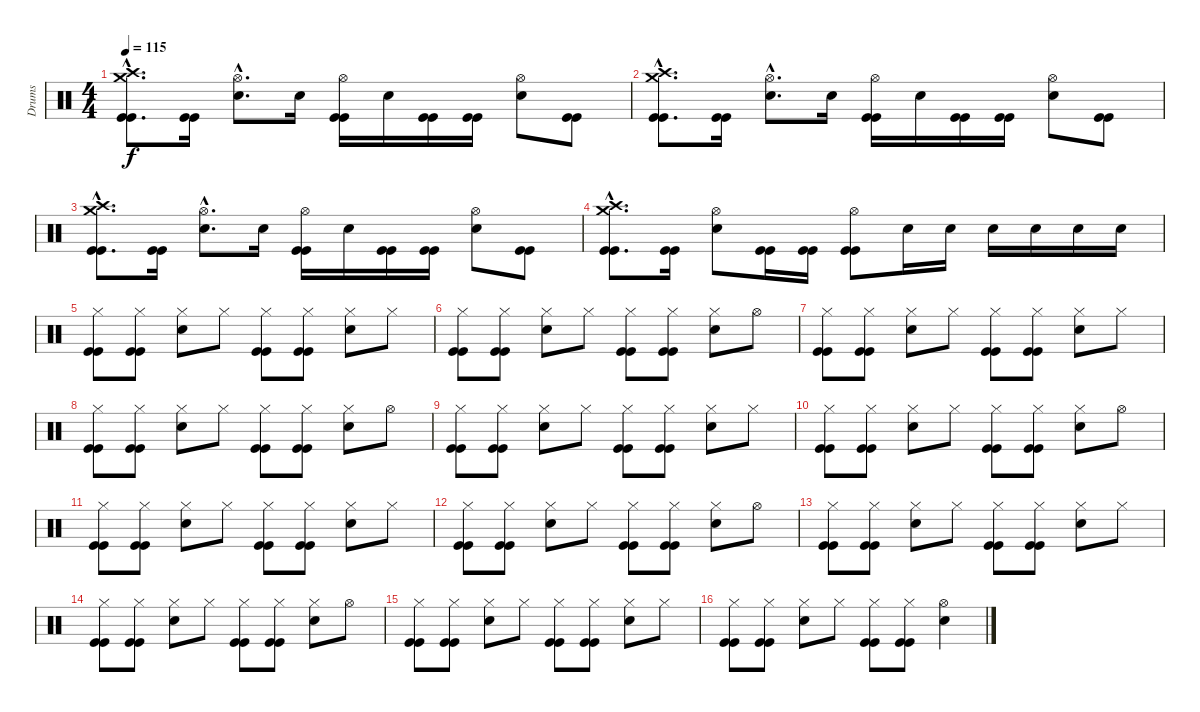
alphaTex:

\track ("Drums" "Drums") {instrument percussion}
\staff {score}
\articulation defaults
\ts (4 4)
\tempo 115
\clef neutral
\ks c
("Crash high (hit)"{hac} "Crash medium (hit)"{hac} "Kick (hit)"{hac} "Kick (hit)"{hac}).8{d dy f} ("Kick (hit)" "Kick (hit)").16 ("Hi-Hat (open)"{hac} "Electric Snare (hit)"{hac}).8{d} "Electric Snare (hit)".16 ("Hi-Hat (open)" "Kick (hit)" "Kick (hit)").16 "Electric Snare (hit)".16 ("Kick (hit)" "Kick (hit)").16 ("Kick (hit)" "Kick (hit)").16 ("Hi-Hat (open)" "Electric Snare (hit)").8 ("Kick (hit)" "Kick (hit)").8 |
("Crash high (hit)"{hac} "Crash medium (hit)"{hac} "Kick (hit)"{hac} "Kick (hit)"{hac}).8{d} ("Kick (hit)" "Kick (hit)").16 ("Hi-Hat (open)"{hac} "Electric Snare (hit)"{hac}).8{d} "Electric Snare (hit)".16 ("Hi-Hat (open)" "Kick (hit)" "Kick (hit)").16 "Electric Snare (hit)".16 ("Kick (hit)" "Kick (hit)").16 ("Kick (hit)" "Kick (hit)").16 ("Hi-Hat (open)" "Electric Snare (hit)").8 ("Kick (hit)" "Kick (hit)").8 |
("Crash high (hit)"{hac} "Crash medium (hit)"{hac} "Kick (hit)"{hac} "Kick (hit)"{hac}).8{d} ("Kick (hit)" "Kick (hit)").16 ("Hi-Hat (open)"{hac} "Electric Snare (hit)"{hac}).8{d} "Electric Snare (hit)".16 ("Hi-Hat (open)" "Kick (hit)" "Kick (hit)").16 "Electric Snare (hit)".16 ("Kick (hit)" "Kick (hit)").16 ("Kick (hit)" "Kick (hit)").16 ("Hi-Hat (open)" "Electric Snare (hit)").8 ("Kick (hit)" "Kick (hit)").8 |
("Crash high (hit)"{hac} "Crash medium (hit)"{hac} "Kick (hit)"{hac} "Kick (hit)"{hac}).8{d} ("Kick (hit)" "Kick (hit)").16 ("Hi-Hat (open)" "Electric Snare (hit)").8 ("Kick (hit)" "Kick (hit)").16 ("Kick (hit)" "Kick (hit)").16 ("Hi-Hat (open)" "Kick (hit)" "Kick (hit)").8 "Electric Snare (hit)".16 "Electric Snare (hit)".16 "Electric Snare (hit)".16 "Electric Snare (hit)".16 "Electric Snare (hit)".16 "Electric Snare (hit)".16 |
("Hi-Hat (closed)" "Kick (hit)" "Kick (hit)").8 ("Hi-Hat (closed)" "Kick (hit)" "Kick (hit)").8 ("Hi-Hat (closed)" "Electric Snare (hit)").8 "Hi-Hat (closed)".8 ("Hi-Hat (closed)" "Kick (hit)" "Kick (hit)").8 ("Hi-Hat (closed)" "Kick (hit)" "Kick (hit)").8 ("Hi-Hat (closed)" "Electric Snare (hit)").8 "Hi-Hat (closed)".8 |
("Hi-Hat (closed)" "Kick (hit)" "Kick (hit)").8 ("Hi-Hat (closed)" "Kick (hit)" "Kick (hit)").8 ("Hi-Hat (closed)" "Electric Snare (hit)").8 "Hi-Hat (closed)".8 ("Hi-Hat (closed)" "Kick (hit)" "Kick (hit)").8 ("Hi-Hat (closed)" "Kick (hit)" "Kick (hit)").8 ("Hi-Hat (closed)" "Electric Snare (hit)").8 "Hi-Hat (open)".8 |
("Hi-Hat (closed)" "Kick (hit)" "Kick (hit)").8 ("Hi-Hat (closed)" "Kick (hit)" "Kick (hit)").8 ("Hi-Hat (closed)" "Electric Snare (hit)").8 "Hi-Hat (closed)".8 ("Hi-Hat (closed)" "Kick (hit)" "Kick (hit)").8 ("Hi-Hat (closed)" "Kick (hit)" "Kick (hit)").8 ("Hi-Hat (closed)" "Electric Snare (hit)").8 "Hi-Hat (closed)".8 |
("Hi-Hat (closed)" "Kick (hit)" "Kick (hit)").8 ("Hi-Hat (closed)" "Kick (hit)" "Kick (hit)").8 ("Hi-Hat (closed)" "Electric Snare (hit)").8 "Hi-Hat (closed)".8 ("Hi-Hat (closed)" "Kick (hit)" "Kick (hit)").8 ("Hi-Hat (closed)" "Kick (hit)" "Kick (hit)").8 ("Hi-Hat (closed)" "Electric Snare (hit)").8 "Hi-Hat (open)".8 |
("Hi-Hat (closed)" "Kick (hit)" "Kick (hit)").8 ("Hi-Hat (closed)" "Kick (hit)" "Kick (hit)").8 ("Hi-Hat (closed)" "Electric Snare (hit)").8 "Hi-Hat (closed)".8 ("Hi-Hat (closed)" "Kick (hit)" "Kick (hit)").8 ("Hi-Hat (closed)" "Kick (hit)" "Kick (hit)").8 ("Hi-Hat (closed)" "Electric Snare (hit)").8 "Hi-Hat (closed)".8 |
("Hi-Hat (closed)" "Kick (hit)" "Kick (hit)").8 ("Hi-Hat (closed)" "Kick (hit)" "Kick (hit)").8 ("Hi-Hat (closed)" "Electric Snare (hit)").8 "Hi-Hat (closed)".8 ("Hi-Hat (closed)" "Kick (hit)" "Kick (hit)").8 ("Hi-Hat (closed)" "Kick (hit)" "Kick (hit)").8 ("Hi-Hat (closed)" "Electric Snare (hit)").8 "Hi-Hat (open)".8 |
("Hi-Hat (closed)" "Kick (hit)" "Kick (hit)").8 ("Hi-Hat (closed)" "Kick (hit)" "Kick (hit)").8 ("Hi-Hat (closed)" "Electric Snare (hit)").8 "Hi-Hat (closed)".8 ("Hi-Hat (closed)" "Kick (hit)" "Kick (hit)").8 ("Hi-Hat (closed)" "Kick (hit)" "Kick (hit)").8 ("Hi-Hat (closed)" "Electric Snare (hit)").8 "Hi-Hat (closed)".8 |
("Hi-Hat (closed)" "Kick (hit)" "Kick (hit)").8 ("Hi-Hat (closed)" "Kick (hit)" "Kick (hit)").8 ("Hi-Hat (closed)" "Electric Snare (hit)").8 "Hi-Hat (closed)".8 ("Hi-Hat (closed)" "Kick (hit)" "Kick (hit)").8 ("Hi-Hat (closed)" "Kick (hit)" "Kick (hit)").8 ("Hi-Hat (closed)" "Electric Snare (hit)").8 "Hi-Hat (open)".8 |
("Hi-Hat (closed)" "Kick (hit)" "Kick (hit)").8 ("Hi-Hat (closed)" "Kick (hit)" "Kick (hit)").8 ("Hi-Hat (closed)" "Electric Snare (hit)").8 "Hi-Hat (closed)".8 ("Hi-Hat (closed)" "Kick (hit)" "Kick (hit)").8 ("Hi-Hat (closed)" "Kick (hit)" "Kick (hit)").8 ("Hi-Hat (closed)" "Electric Snare (hit)").8 "Hi-Hat (closed)".8 |
("Hi-Hat (closed)" "Kick (hit)" "Kick (hit)").8 ("Hi-Hat (closed)" "Kick (hit)" "Kick (hit)").8 ("Hi-Hat (closed)" "Electric Snare (hit)").8 "Hi-Hat (closed)".8 ("Hi-Hat (closed)" "Kick (hit)" "Kick (hit)").8 ("Hi-Hat (closed)" "Kick (hit)" "Kick (hit)").8 ("Hi-Hat (closed)" "Electric Snare (hit)").8 "Hi-Hat (open)".8 |
("Hi-Hat (closed)" "Kick (hit)" "Kick (hit)").8 ("Hi-Hat (closed)" "Kick (hit)" "Kick (hit)").8 ("Hi-Hat (closed)" "Electric Snare (hit)").8 "Hi-Hat (closed)".8 ("Hi-Hat (closed)" "Kick (hit)" "Kick (hit)").8 ("Hi-Hat (closed)" "Kick (hit)" "Kick (hit)").8 ("Hi-Hat (closed)" "Electric Snare (hit)").8 "Hi-Hat (closed)".8 |
("Hi-Hat (closed)" "Kick (hit)" "Kick (hit)").8 ("Hi-Hat (closed)" "Kick (hit)" "Kick (hit)").8 ("Hi-Hat (closed)" "Electric Snare (hit)").8 "Hi-Hat (closed)".8 ("Hi-Hat (closed)" "Kick (hit)" "Kick (hit)").8 ("Hi-Hat (closed)" "Kick (hit)" "Kick (hit)").8 ("Hi-Hat (open)" "Electric Snare (hit)").4
